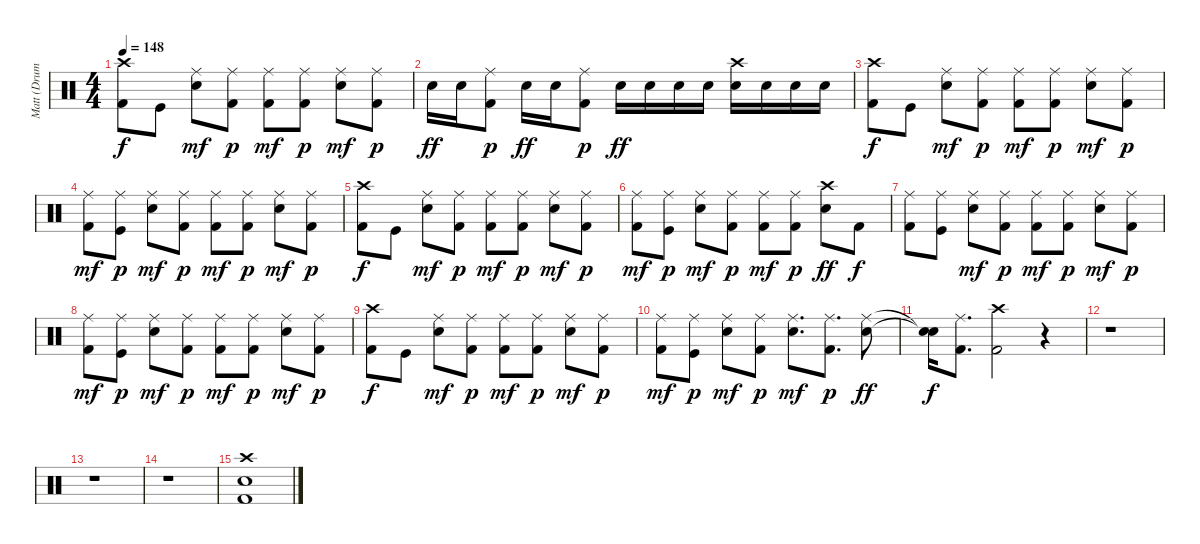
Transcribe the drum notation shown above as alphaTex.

\track ("Matt (Drums)" "Matt (Drum") {instrument percussion}
\staff {score}
\articulation defaults
\ts (4 4)
\tempo 148
\clef neutral
\ks c
("Kick (hit) 2" "Crash high (hit)").8{dy f} "Kick (hit)".8 ("Electric Snare (hit)" "Ride (middle)").8{dy mf} ("Kick (hit) 2" "Ride (middle)").8{dy p} ("Kick (hit) 2" "Ride (middle)").8{dy mf} ("Kick (hit) 2" "Ride (middle)").8{dy p} ("Electric Snare (hit)" "Ride (middle)").8{dy mf} ("Kick (hit) 2" "Ride (middle)").8{dy p} |
"Electric Snare (hit)".16{dy ff} "Electric Snare (hit)".16 ("Kick (hit) 2" "Ride (middle)").8{dy p} "Electric Snare (hit)".16{dy ff} "Electric Snare (hit)".16 ("Kick (hit) 2" "Ride (middle)").8{dy p} "Electric Snare (hit)".16{dy ff} "Electric Snare (hit)".16 "Electric Snare (hit)".16 "Electric Snare (hit)".16 ("Electric Snare (hit)" "Crash high (hit)").16 "Electric Snare (hit)".16 "Electric Snare (hit)".16 "Electric Snare (hit)".16 |
("Kick (hit) 2" "Crash high (hit)").8{dy f} "Kick (hit)".8 ("Electric Snare (hit)" "Ride (middle)").8{dy mf} ("Kick (hit) 2" "Ride (middle)").8{dy p} ("Kick (hit) 2" "Ride (middle)").8{dy mf} ("Kick (hit) 2" "Ride (middle)").8{dy p} ("Electric Snare (hit)" "Ride (middle)").8{dy mf} ("Kick (hit) 2" "Ride (middle)").8{dy p} |
("Kick (hit) 2" "Ride (middle)").8{dy mf} ("Kick (hit)" "Ride (middle)").8{dy p} ("Electric Snare (hit)" "Ride (middle)").8{dy mf} ("Kick (hit) 2" "Ride (middle)").8{dy p} ("Kick (hit) 2" "Ride (middle)").8{dy mf} ("Kick (hit) 2" "Ride (middle)").8{dy p} ("Electric Snare (hit)" "Ride (middle)").8{dy mf} ("Kick (hit) 2" "Ride (middle)").8{dy p} |
("Kick (hit) 2" "Crash high (hit)").8{dy f} "Kick (hit)".8 ("Electric Snare (hit)" "Ride (middle)").8{dy mf} ("Kick (hit) 2" "Ride (middle)").8{dy p} ("Kick (hit) 2" "Ride (middle)").8{dy mf} ("Kick (hit) 2" "Ride (middle)").8{dy p} ("Electric Snare (hit)" "Ride (middle)").8{dy mf} ("Kick (hit) 2" "Ride (middle)").8{dy p} |
("Kick (hit) 2" "Ride (middle)").8{dy mf} ("Kick (hit)" "Ride (middle)").8{dy p} ("Electric Snare (hit)" "Ride (middle)").8{dy mf} ("Kick (hit) 2" "Ride (middle)").8{dy p} ("Kick (hit) 2" "Ride (middle)").8{dy mf} ("Kick (hit) 2" "Ride (middle)").8{dy p} ("Electric Snare (hit)" "Crash high (hit)").8{dy ff} "Kick (hit) 2".8{dy f} |
("Kick (hit) 2" "Ride (middle)").8 ("Kick (hit)" "Ride (middle)").8 ("Electric Snare (hit)" "Ride (middle)").8{dy mf} ("Kick (hit) 2" "Ride (middle)").8{dy p} ("Kick (hit) 2" "Ride (middle)").8{dy mf} ("Kick (hit) 2" "Ride (middle)").8{dy p} ("Electric Snare (hit)" "Ride (middle)").8{dy mf} ("Kick (hit) 2" "Ride (middle)").8{dy p} |
("Kick (hit) 2" "Ride (middle)").8{dy mf} ("Kick (hit)" "Ride (middle)").8{dy p} ("Electric Snare (hit)" "Ride (middle)").8{dy mf} ("Kick (hit) 2" "Ride (middle)").8{dy p} ("Kick (hit) 2" "Ride (middle)").8{dy mf} ("Kick (hit) 2" "Ride (middle)").8{dy p} ("Electric Snare (hit)" "Ride (middle)").8{dy mf} ("Kick (hit) 2" "Ride (middle)").8{dy p} |
("Kick (hit) 2" "Crash high (hit)").8{dy f} "Kick (hit)".8 ("Electric Snare (hit)" "Ride (middle)").8{dy mf} ("Kick (hit) 2" "Ride (middle)").8{dy p} ("Kick (hit) 2" "Ride (middle)").8{dy mf} ("Kick (hit) 2" "Ride (middle)").8{dy p} ("Electric Snare (hit)" "Ride (middle)").8{dy mf} ("Kick (hit) 2" "Ride (middle)").8{dy p} |
("Kick (hit) 2" "Ride (middle)").8{dy mf} ("Kick (hit)" "Ride (middle)").8{dy p} ("Electric Snare (hit)" "Ride (middle)").8{dy mf} ("Kick (hit) 2" "Ride (middle)").8{dy p} ("Electric Snare (hit)" "Ride (middle)").8{d dy mf} ("Kick (hit) 2" "Ride (middle)").8{d dy p} ("Electric Snare (hit)" "Ride (middle)").8{dy ff} |
("Snare (hit)"{t} "Snare (hit)"{t}).16{dy f} ("Kick (hit) 2" "Ride (middle)").8{d} ("Kick (hit) 2" "Crash high (hit)").2 r.4 |
r.1 |
r.1 |
r.1 |
("Electric Snare (hit)" "Kick (hit) 2" "Crash high (hit)").1
